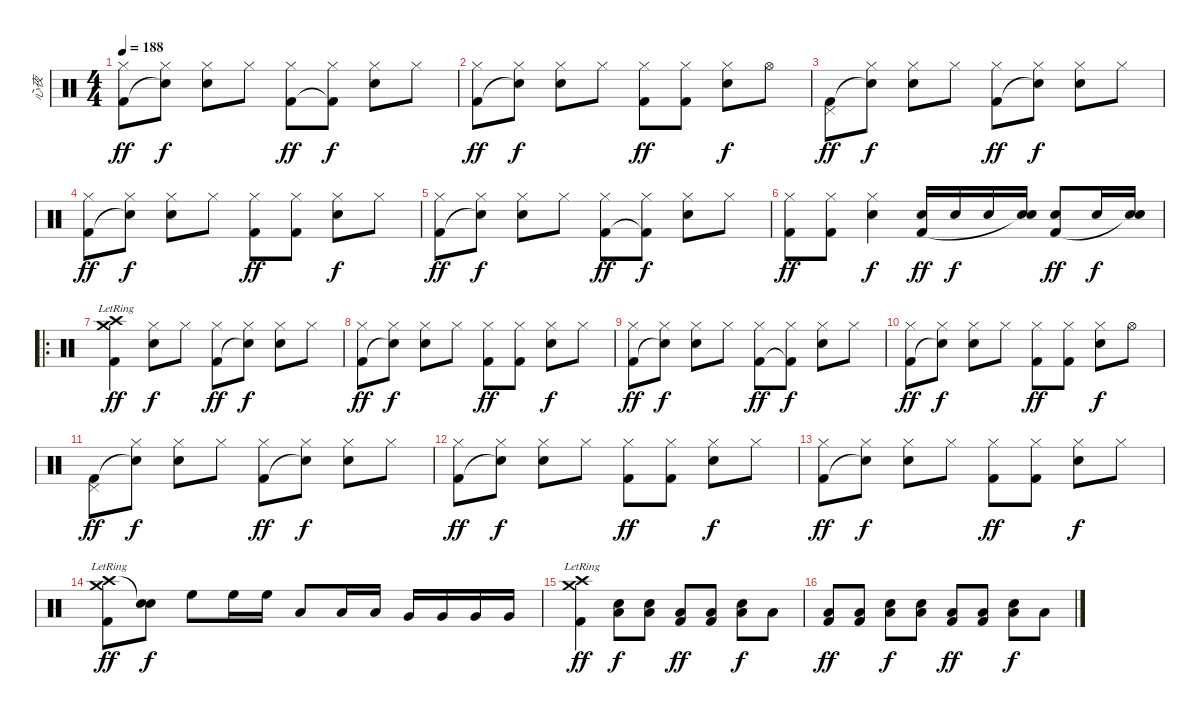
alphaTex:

\track ("心夜" "心夜") {instrument percussion}
\staff {score}
\articulation defaults
\ts (4 4)
\tempo 188
\clef neutral
\ks c
("Hi-Hat (closed)" "Kick (hit) 2").8{dy ff} ("Hi-Hat (closed)" "Snare (hit)"{t}).8{dy f} ("Hi-Hat (closed)" "Electric Snare (hit)").8 "Hi-Hat (closed)".8 ("Hi-Hat (closed)" "Kick (hit) 2").8{dy ff} ("Hi-Hat (closed)" "Kick (hit) 2"{t}).8{dy f} ("Hi-Hat (closed)" "Electric Snare (hit)").8 "Hi-Hat (closed)".8 |
("Hi-Hat (closed)" "Kick (hit) 2").8{dy ff} ("Hi-Hat (closed)" "Snare (hit)"{t}).8{dy f} ("Hi-Hat (closed)" "Electric Snare (hit)").8 "Hi-Hat (closed)".8 ("Hi-Hat (closed)" "Kick (hit) 2").8{dy ff} ("Hi-Hat (closed)" "Kick (hit) 2").8 ("Hi-Hat (closed)" "Electric Snare (hit)").8{dy f} "Hi-Hat (open)".8 |
("Pedal Hi-Hat (hit)" "Kick (hit) 2").8{dy ff} ("Hi-Hat (closed)" "Snare (hit)"{t}).8{dy f} ("Hi-Hat (closed)" "Electric Snare (hit)").8 "Hi-Hat (closed)".8 ("Hi-Hat (closed)" "Kick (hit) 2").8{dy ff} ("Hi-Hat (closed)" "Snare (hit)"{t}).8{dy f} ("Hi-Hat (closed)" "Electric Snare (hit)").8 "Hi-Hat (closed)".8 |
("Hi-Hat (closed)" "Kick (hit) 2").8{dy ff} ("Hi-Hat (closed)" "Snare (hit)"{t}).8{dy f} ("Hi-Hat (closed)" "Electric Snare (hit)").8 "Hi-Hat (closed)".8 ("Hi-Hat (closed)" "Kick (hit) 2").8{dy ff} ("Hi-Hat (closed)" "Kick (hit) 2").8 ("Hi-Hat (closed)" "Electric Snare (hit)").8{dy f} "Hi-Hat (closed)".8 |
("Hi-Hat (closed)" "Kick (hit) 2").8{dy ff} ("Hi-Hat (closed)" "Snare (hit)"{t}).8{dy f} ("Hi-Hat (closed)" "Electric Snare (hit)").8 "Hi-Hat (closed)".8 ("Hi-Hat (closed)" "Kick (hit) 2").8{dy ff} ("Hi-Hat (closed)" "Kick (hit) 2"{t}).8{dy f} ("Hi-Hat (closed)" "Electric Snare (hit)").8 "Hi-Hat (closed)".8 |
("Hi-Hat (closed)" "Kick (hit) 2").8{dy ff} ("Hi-Hat (closed)" "Kick (hit) 2").8 ("Hi-Hat (closed)" "Electric Snare (hit)").4{dy f} ("Electric Snare (hit)" "Kick (hit) 2").16{dy ff} "Electric Snare (hit)".16{dy f} "Electric Snare (hit)".16 ("Electric Snare (hit)" "Snare (hit)"{t}).16 ("Electric Snare (hit)" "Kick (hit) 2").8{dy ff} "Electric Snare (hit)".16{dy f} ("Electric Snare (hit)" "Snare (hit)"{t}).16 |
\ro
("Crash medium (hit)"{lr} "Crash high (hit)"{lr} "Kick (hit) 2").4{dy ff} ("Hi-Hat (closed)" "Electric Snare (hit)").8{dy f} "Hi-Hat (closed)".8 ("Hi-Hat (closed)" "Kick (hit) 2").8{dy ff} ("Hi-Hat (closed)" "Snare (hit)"{t}).8{dy f} ("Hi-Hat (closed)" "Electric Snare (hit)").8 "Hi-Hat (closed)".8 |
("Hi-Hat (closed)" "Kick (hit) 2").8{dy ff} ("Hi-Hat (closed)" "Snare (hit)"{t}).8{dy f} ("Hi-Hat (closed)" "Electric Snare (hit)").8 "Hi-Hat (closed)".8 ("Hi-Hat (closed)" "Kick (hit) 2").8{dy ff} ("Hi-Hat (closed)" "Kick (hit) 2").8 ("Hi-Hat (closed)" "Electric Snare (hit)").8{dy f} "Hi-Hat (closed)".8 |
("Hi-Hat (closed)" "Kick (hit) 2").8{dy ff} ("Hi-Hat (closed)" "Snare (hit)"{t}).8{dy f} ("Hi-Hat (closed)" "Electric Snare (hit)").8 "Hi-Hat (closed)".8 ("Hi-Hat (closed)" "Kick (hit) 2").8{dy ff} ("Hi-Hat (closed)" "Kick (hit) 2"{t}).8{dy f} ("Hi-Hat (closed)" "Electric Snare (hit)").8 "Hi-Hat (closed)".8 |
("Hi-Hat (closed)" "Kick (hit) 2").8{dy ff} ("Hi-Hat (closed)" "Snare (hit)"{t}).8{dy f} ("Hi-Hat (closed)" "Electric Snare (hit)").8 "Hi-Hat (closed)".8 ("Hi-Hat (closed)" "Kick (hit) 2").8{dy ff} ("Hi-Hat (closed)" "Kick (hit) 2").8 ("Hi-Hat (closed)" "Electric Snare (hit)").8{dy f} "Hi-Hat (open)".8 |
("Pedal Hi-Hat (hit)" "Kick (hit) 2").8{dy ff} ("Hi-Hat (closed)" "Snare (hit)"{t}).8{dy f} ("Hi-Hat (closed)" "Electric Snare (hit)").8 "Hi-Hat (closed)".8 ("Hi-Hat (closed)" "Kick (hit) 2").8{dy ff} ("Hi-Hat (closed)" "Snare (hit)"{t}).8{dy f} ("Hi-Hat (closed)" "Electric Snare (hit)").8 "Hi-Hat (closed)".8 |
("Hi-Hat (closed)" "Kick (hit) 2").8{dy ff} ("Hi-Hat (closed)" "Snare (hit)"{t}).8{dy f} ("Hi-Hat (closed)" "Electric Snare (hit)").8 "Hi-Hat (closed)".8 ("Hi-Hat (closed)" "Kick (hit) 2").8{dy ff} ("Hi-Hat (closed)" "Kick (hit) 2").8 ("Hi-Hat (closed)" "Electric Snare (hit)").8{dy f} "Hi-Hat (closed)".8 |
("Hi-Hat (closed)" "Kick (hit) 2").8{dy ff} ("Hi-Hat (closed)" "Snare (hit)"{t}).8{dy f} ("Hi-Hat (closed)" "Electric Snare (hit)").8 "Hi-Hat (closed)".8 ("Hi-Hat (closed)" "Kick (hit) 2").8{dy ff} ("Hi-Hat (closed)" "Kick (hit) 2").8 ("Hi-Hat (closed)" "Electric Snare (hit)").8{dy f} "Hi-Hat (closed)".8 |
("Crash medium (hit)"{lr} "Crash high (hit)"{lr} "Kick (hit) 2").8{dy ff} ("Electric Snare (hit)" "Snare (hit)"{t}).8{dy f} "High Floor Tom (hit)".8 "High Floor Tom (hit)".16 "High Floor Tom (hit)".16 "Low Tom (hit)".8 "Low Tom (hit)".16 "Low Tom (hit)".16 "Very Low Tom (hit)".16 "Very Low Tom (hit)".16 "Very Low Tom (hit)".16 "Very Low Tom (hit)".16 |
("Crash medium (hit)"{lr} "Crash high (hit)"{lr} "Kick (hit) 2").4{dy ff} ("Electric Snare (hit)" "Low Floor Tom (hit)").8{dy f} ("Electric Snare (hit)" "Low Floor Tom (hit)").8 ("Low Floor Tom (hit)" "Kick (hit) 2").8{dy ff} ("Low Floor Tom (hit)" "Kick (hit) 2").8 ("Electric Snare (hit)" "Low Floor Tom (hit)").8{dy f} "Low Floor Tom (hit)".8 |
("Low Floor Tom (hit)" "Kick (hit) 2").8{dy ff} ("Low Floor Tom (hit)" "Kick (hit) 2").8 ("Electric Snare (hit)" "Low Floor Tom (hit)").8{dy f} ("Electric Snare (hit)" "Low Floor Tom (hit)").8 ("Low Floor Tom (hit)" "Kick (hit) 2").8{dy ff} ("Low Floor Tom (hit)" "Kick (hit) 2").8 ("Electric Snare (hit)" "Low Floor Tom (hit)").8{dy f} "Low Floor Tom (hit)".8
